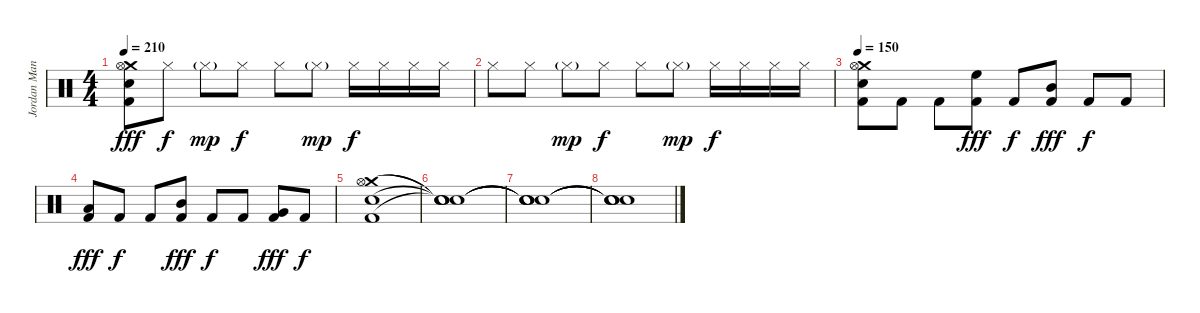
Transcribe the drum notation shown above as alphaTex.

\track ("Jordan Mancino" "Jordan Man") {instrument percussion}
\staff {score}
\articulation defaults
\ts (4 4)
\tempo 210
\clef neutral
\ks c
("Crash medium (hit)" "Kick (hit) 2" "Snare (hit) 2" "Hi-Hat (open)").8{dy fff} "Hi-Hat (closed)".8{dy f} "Hi-Hat (closed)"{g}.8{dy mp} "Hi-Hat (closed)".8{dy f} "Hi-Hat (closed)".8 "Hi-Hat (closed)"{g}.8{dy mp} "Hi-Hat (closed)".16{dy f} "Hi-Hat (closed)".16 "Hi-Hat (closed)".16 "Hi-Hat (closed)".16 |
"Hi-Hat (closed)".8 "Hi-Hat (closed)".8 "Hi-Hat (closed)"{g}.8{dy mp} "Hi-Hat (closed)".8{dy f} "Hi-Hat (closed)".8 "Hi-Hat (closed)"{g}.8{dy mp} "Hi-Hat (closed)".16{dy f} "Hi-Hat (closed)".16 "Hi-Hat (closed)".16 "Hi-Hat (closed)".16 |
\tempo 150
("Crash medium (hit)" "Kick (hit) 2" "Snare (hit) 2" "Hi-Hat (open)").8 "Kick (hit) 2".8 "Kick (hit) 2".8 ("Kick (hit) 2" "High Floor Tom (hit)").8{dy fff} "Kick (hit) 2".8{dy f} ("Kick (hit) 2" "Mid Tom (hit)").8{dy fff} "Kick (hit) 2".8{dy f} "Kick (hit) 2".8 |
("Kick (hit) 2" "Low Tom (hit)").8{dy fff} "Kick (hit) 2".8{dy f} "Kick (hit) 2".8 ("Kick (hit) 2" "Mid Tom (hit)").8{dy fff} "Kick (hit) 2".8{dy f} "Kick (hit) 2".8 ("Kick (hit) 2" "Very Low Tom (hit)").8{dy fff} "Kick (hit) 2".8{dy f} |
("Crash medium (hit)" "Kick (hit) 2" "Snare (hit) 2" "Hi-Hat (open)").1 |
("Snare (hit)"{t} "Snare (hit)"{t} "Snare (hit)"{t} "Snare (hit)"{t}).1 |
("Snare (hit)"{t} "Snare (hit)"{t} "Snare (hit)"{t} "Snare (hit)"{t}).1 |
("Snare (hit)"{t} "Snare (hit)"{t} "Snare (hit)"{t} "Snare (hit)"{t}).1
